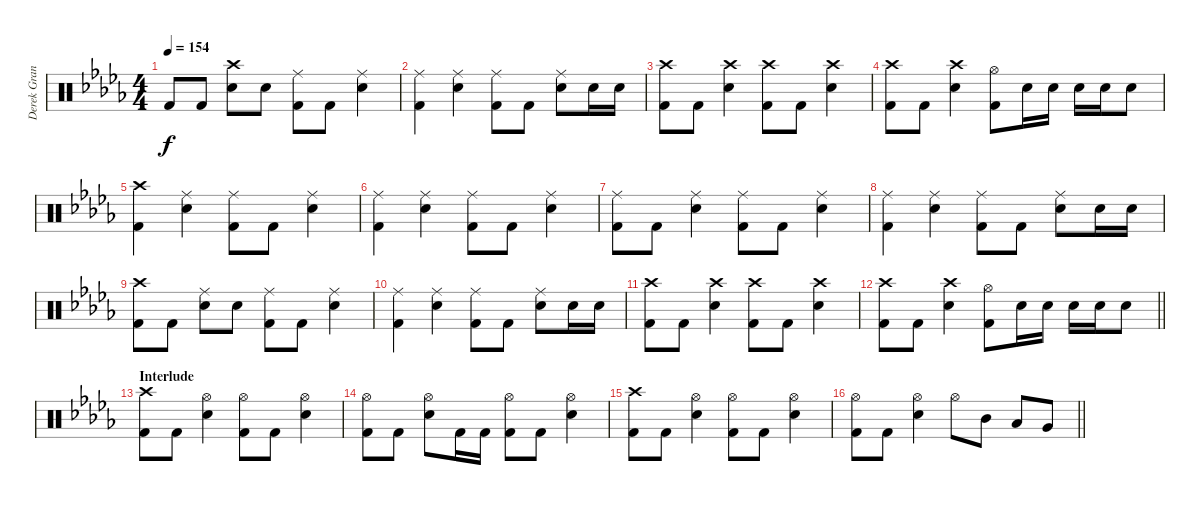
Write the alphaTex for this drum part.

\track ("Derek Grant - Drums" "Derek Gran") {instrument percussion}
\staff {score}
\articulation defaults
\ts (4 4)
\tempo 154
\clef neutral
\ks db "Kick (hit) 2".8{dy f} "Kick (hit) 2".8
("Snare (hit) 2" "Crash high (hit)").8 "Snare (hit) 2".8 ("Ride (middle)" "Kick (hit) 2").8 "Kick (hit) 2".8 ("Ride (middle)" "Snare (hit) 2").4 |
("Ride (middle)" "Kick (hit) 2").4 ("Ride (middle)" "Snare (hit) 2").4 ("Ride (middle)" "Kick (hit) 2").8 "Kick (hit) 2".8 ("Ride (middle)" "Snare (hit) 2").8 "Snare (hit) 2".16 "Snare (hit) 2".16 |
("Kick (hit) 2" "Crash high (hit)").8 "Kick (hit) 2".8 ("Snare (hit) 2" "Crash high (hit)").4 ("Kick (hit) 2" "Crash high (hit)").8 "Kick (hit) 2".8 ("Snare (hit) 2" "Crash high (hit)").4 |
("Kick (hit) 2" "Crash high (hit)").8 "Kick (hit) 2".8 ("Snare (hit) 2" "Crash high (hit)").4 ("Kick (hit) 2" "Hi-Hat (open)").8 "Snare (hit) 2".16 "Snare (hit) 2".16 "Snare (hit) 2".16 "Snare (hit) 2".16 "Snare (hit) 2".8 |
("Crash high (hit)" "Kick (hit) 2").4 ("Ride (middle)" "Snare (hit) 2").4 ("Ride (middle)" "Kick (hit) 2").8 "Kick (hit) 2".8 ("Ride (middle)" "Snare (hit) 2").4 |
("Ride (middle)" "Kick (hit) 2").4 ("Ride (middle)" "Snare (hit) 2").4 ("Ride (middle)" "Kick (hit) 2").8 "Kick (hit) 2".8 ("Ride (middle)" "Snare (hit) 2").4 |
("Ride (middle)" "Kick (hit) 2").8 "Kick (hit) 2".8 ("Ride (middle)" "Snare (hit) 2").4 ("Ride (middle)" "Kick (hit) 2").8 "Kick (hit) 2".8 ("Ride (middle)" "Snare (hit) 2").4 |
("Ride (middle)" "Kick (hit) 2").4 ("Ride (middle)" "Snare (hit) 2").4 ("Ride (middle)" "Kick (hit) 2").8 "Kick (hit) 2".8 ("Ride (middle)" "Snare (hit) 2").8 "Snare (hit) 2".16 "Snare (hit) 2".16 |
("Kick (hit) 2" "Crash high (hit)").8 "Kick (hit) 2".8 ("Snare (hit) 2" "Ride (middle)").8 "Snare (hit) 2".8 ("Ride (middle)" "Kick (hit) 2").8 "Kick (hit) 2".8 ("Ride (middle)" "Snare (hit) 2").4 |
("Ride (middle)" "Kick (hit) 2").4 ("Ride (middle)" "Snare (hit) 2").4 ("Ride (middle)" "Kick (hit) 2").8 "Kick (hit) 2".8 ("Ride (middle)" "Snare (hit) 2").8 "Snare (hit) 2".16 "Snare (hit) 2".16 |
("Kick (hit) 2" "Crash high (hit)").8 "Kick (hit) 2".8 ("Snare (hit) 2" "Crash high (hit)").4 ("Kick (hit) 2" "Crash high (hit)").8 "Kick (hit) 2".8 ("Snare (hit) 2" "Crash high (hit)").4 |
\barLineRight lightlight
("Kick (hit) 2" "Crash high (hit)").8 "Kick (hit) 2".8 ("Snare (hit) 2" "Crash high (hit)").4 ("Kick (hit) 2" "Hi-Hat (open)").8 "Snare (hit) 2".16 "Snare (hit) 2".16 "Snare (hit) 2".16 "Snare (hit) 2".16 "Snare (hit) 2".8 |
\section ("" "Interlude")
("Crash high (hit)" "Kick (hit) 2").8 "Kick (hit) 2".8 ("Snare (hit) 2" "Hi-Hat (open)").4 ("Hi-Hat (open)" "Kick (hit) 2").8 "Kick (hit) 2".8 ("Hi-Hat (open)" "Snare (hit) 2").4 |
("Hi-Hat (open)" "Kick (hit) 2").8 "Kick (hit) 2".8 ("Snare (hit) 2" "Hi-Hat (open)").8 "Kick (hit) 2".16 "Kick (hit) 2".16 ("Kick (hit) 2" "Hi-Hat (open)").8 "Kick (hit) 2".8 ("Snare (hit) 2" "Hi-Hat (open)").4 |
("Crash high (hit)" "Kick (hit) 2").8 "Kick (hit) 2".8 ("Snare (hit) 2" "Hi-Hat (open)").4 ("Hi-Hat (open)" "Kick (hit) 2").8 "Kick (hit) 2".8 ("Hi-Hat (open)" "Snare (hit) 2").4 |
\barLineRight lightlight
("Hi-Hat (open)" "Kick (hit) 2").8 "Kick (hit) 2".8 ("Snare (hit) 2" "Hi-Hat (open)").4 "Hi-Hat (open)".8 "Mid Tom (hit)".8 "Low Tom (hit)".8 "Very Low Tom (hit)".8
